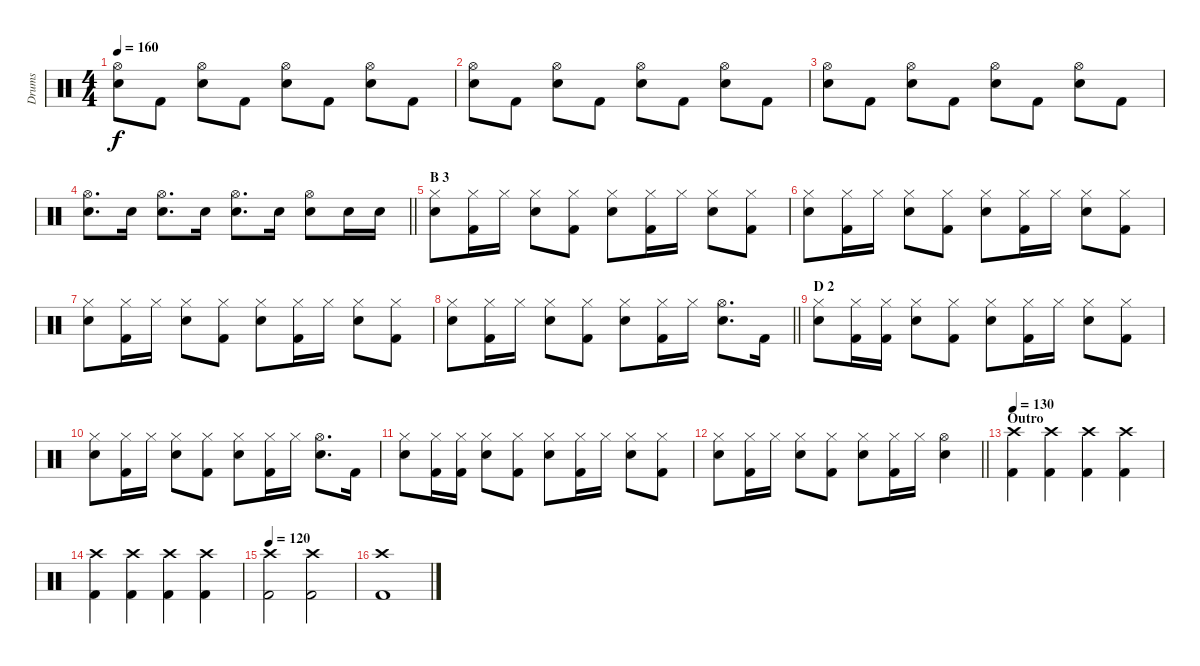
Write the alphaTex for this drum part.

\track ("Drums" "Drums") {instrument percussion}
\staff {score}
\articulation defaults
\ts (4 4)
\tempo 160
\clef neutral
\ks c
("Hi-Hat (open)" "Snare (hit) 2").8{dy f} "Kick (hit) 2".8 ("Hi-Hat (open)" "Snare (hit) 2").8 "Kick (hit) 2".8 ("Hi-Hat (open)" "Snare (hit) 2").8 "Kick (hit) 2".8 ("Hi-Hat (open)" "Snare (hit) 2").8 "Kick (hit) 2".8 |
("Hi-Hat (open)" "Snare (hit) 2").8 "Kick (hit) 2".8 ("Hi-Hat (open)" "Snare (hit) 2").8 "Kick (hit) 2".8 ("Hi-Hat (open)" "Snare (hit) 2").8 "Kick (hit) 2".8 ("Hi-Hat (open)" "Snare (hit) 2").8 "Kick (hit) 2".8 |
("Hi-Hat (open)" "Snare (hit) 2").8 "Kick (hit) 2".8 ("Hi-Hat (open)" "Snare (hit) 2").8 "Kick (hit) 2".8 ("Hi-Hat (open)" "Snare (hit) 2").8 "Kick (hit) 2".8 ("Hi-Hat (open)" "Snare (hit) 2").8 "Kick (hit) 2".8 |
\barLineRight lightlight
("Hi-Hat (open)" "Snare (hit) 2").8{d} "Snare (hit) 2".16 ("Hi-Hat (open)" "Snare (hit) 2").8{d} "Snare (hit) 2".16 ("Hi-Hat (open)" "Snare (hit) 2").8{d} "Snare (hit) 2".16 ("Hi-Hat (open)" "Snare (hit) 2").8 "Snare (hit) 2".16 "Snare (hit) 2".16 |
\section ("" "B 3")
("Hi-Hat (closed)" "Snare (hit) 2").8 ("Hi-Hat (closed)" "Kick (hit) 2").16 "Hi-Hat (closed)".16 ("Hi-Hat (closed)" "Snare (hit) 2").8 ("Hi-Hat (closed)" "Kick (hit) 2").8 ("Hi-Hat (closed)" "Snare (hit) 2").8 ("Hi-Hat (closed)" "Kick (hit) 2").16 "Hi-Hat (closed)".16 ("Hi-Hat (closed)" "Snare (hit) 2").8 ("Hi-Hat (closed)" "Kick (hit) 2").8 |
("Hi-Hat (closed)" "Snare (hit) 2").8 ("Hi-Hat (closed)" "Kick (hit) 2").16 "Hi-Hat (closed)".16 ("Hi-Hat (closed)" "Snare (hit) 2").8 ("Hi-Hat (closed)" "Kick (hit) 2").8 ("Hi-Hat (closed)" "Snare (hit) 2").8 ("Hi-Hat (closed)" "Kick (hit) 2").16 "Hi-Hat (closed)".16 ("Hi-Hat (closed)" "Snare (hit) 2").8 ("Hi-Hat (closed)" "Kick (hit) 2").8 |
("Hi-Hat (closed)" "Snare (hit) 2").8 ("Hi-Hat (closed)" "Kick (hit) 2").16 "Hi-Hat (closed)".16 ("Hi-Hat (closed)" "Snare (hit) 2").8 ("Hi-Hat (closed)" "Kick (hit) 2").8 ("Hi-Hat (closed)" "Snare (hit) 2").8 ("Hi-Hat (closed)" "Kick (hit) 2").16 "Hi-Hat (closed)".16 ("Hi-Hat (closed)" "Snare (hit) 2").8 ("Hi-Hat (closed)" "Kick (hit) 2").8 |
\barLineRight lightlight
("Hi-Hat (closed)" "Snare (hit) 2").8 ("Hi-Hat (closed)" "Kick (hit) 2").16 "Hi-Hat (closed)".16 ("Hi-Hat (closed)" "Snare (hit) 2").8 ("Hi-Hat (closed)" "Kick (hit) 2").8 ("Hi-Hat (closed)" "Snare (hit) 2").8 ("Hi-Hat (closed)" "Kick (hit) 2").16 "Hi-Hat (closed)".16 ("Hi-Hat (open)" "Snare (hit) 2").8{d} "Kick (hit) 2".16 |
\section ("" "D 2")
("Hi-Hat (closed)" "Snare (hit) 2").8 ("Hi-Hat (closed)" "Kick (hit) 2").16 ("Hi-Hat (closed)" "Kick (hit) 2").16 ("Hi-Hat (closed)" "Snare (hit) 2").8 ("Hi-Hat (closed)" "Kick (hit) 2").8 ("Hi-Hat (closed)" "Snare (hit) 2").8 ("Hi-Hat (closed)" "Kick (hit) 2").16 "Hi-Hat (closed)".16 ("Hi-Hat (closed)" "Snare (hit) 2").8 ("Hi-Hat (closed)" "Kick (hit) 2").8 |
("Hi-Hat (closed)" "Snare (hit) 2").8 ("Hi-Hat (closed)" "Kick (hit) 2").16 "Hi-Hat (closed)".16 ("Hi-Hat (closed)" "Snare (hit) 2").8 ("Hi-Hat (closed)" "Kick (hit) 2").8 ("Hi-Hat (closed)" "Snare (hit) 2").8 ("Hi-Hat (closed)" "Kick (hit) 2").16 "Hi-Hat (closed)".16 ("Hi-Hat (open)" "Snare (hit) 2").8{d} "Kick (hit) 2".16 |
("Hi-Hat (closed)" "Snare (hit) 2").8 ("Hi-Hat (closed)" "Kick (hit) 2").16 ("Hi-Hat (closed)" "Kick (hit) 2").16 ("Hi-Hat (closed)" "Snare (hit) 2").8 ("Hi-Hat (closed)" "Kick (hit) 2").8 ("Hi-Hat (closed)" "Snare (hit) 2").8 ("Hi-Hat (closed)" "Kick (hit) 2").16 "Hi-Hat (closed)".16 ("Hi-Hat (closed)" "Snare (hit) 2").8 ("Hi-Hat (closed)" "Kick (hit) 2").8 |
\barLineRight lightlight
("Hi-Hat (closed)" "Snare (hit) 2").8 ("Hi-Hat (closed)" "Kick (hit) 2").16 "Hi-Hat (closed)".16 ("Hi-Hat (closed)" "Snare (hit) 2").8 ("Hi-Hat (closed)" "Kick (hit) 2").8 ("Hi-Hat (closed)" "Snare (hit) 2").8 ("Hi-Hat (closed)" "Kick (hit) 2").16 "Hi-Hat (closed)".16 ("Hi-Hat (open)" "Snare (hit) 2").4 |
\section ("" "Outro")
\tempo 130
("Crash high (hit)" "Kick (hit) 2").4 ("Crash high (hit)" "Kick (hit) 2").4 ("Crash high (hit)" "Kick (hit) 2").4 ("Crash high (hit)" "Kick (hit) 2").4 |
("Crash high (hit)" "Kick (hit) 2").4 ("Crash high (hit)" "Kick (hit) 2").4 ("Crash high (hit)" "Kick (hit) 2").4 ("Crash high (hit)" "Kick (hit) 2").4 |
\tempo 120
("Crash high (hit)" "Kick (hit) 2").2 ("Crash high (hit)" "Kick (hit) 2").2 |
("Crash high (hit)" "Kick (hit) 2").1
